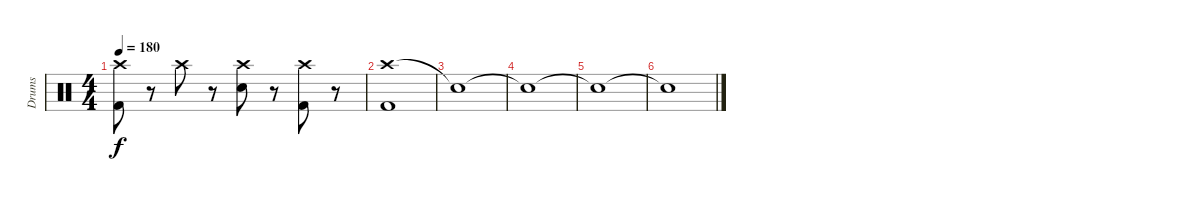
\track ("Drums" "Drums") {instrument percussion}
\staff {score}
\articulation defaults
\ts (4 4)
\tempo 180
\clef neutral
\ks c
("Crash high (hit)" "Kick (hit) 2").8{dy f} r.8 "Crash high (hit)".8 r.8 ("Crash high (hit)" "Snare (hit) 2").8 r.8 ("Crash high (hit)" "Kick (hit) 2").8 r.8 |
("Crash high (hit)" "Kick (hit) 2").1 |
"Snare (hit)"{t}.1 |
"Snare (hit)"{t}.1 |
"Snare (hit)"{t}.1 |
"Snare (hit)"{t}.1
